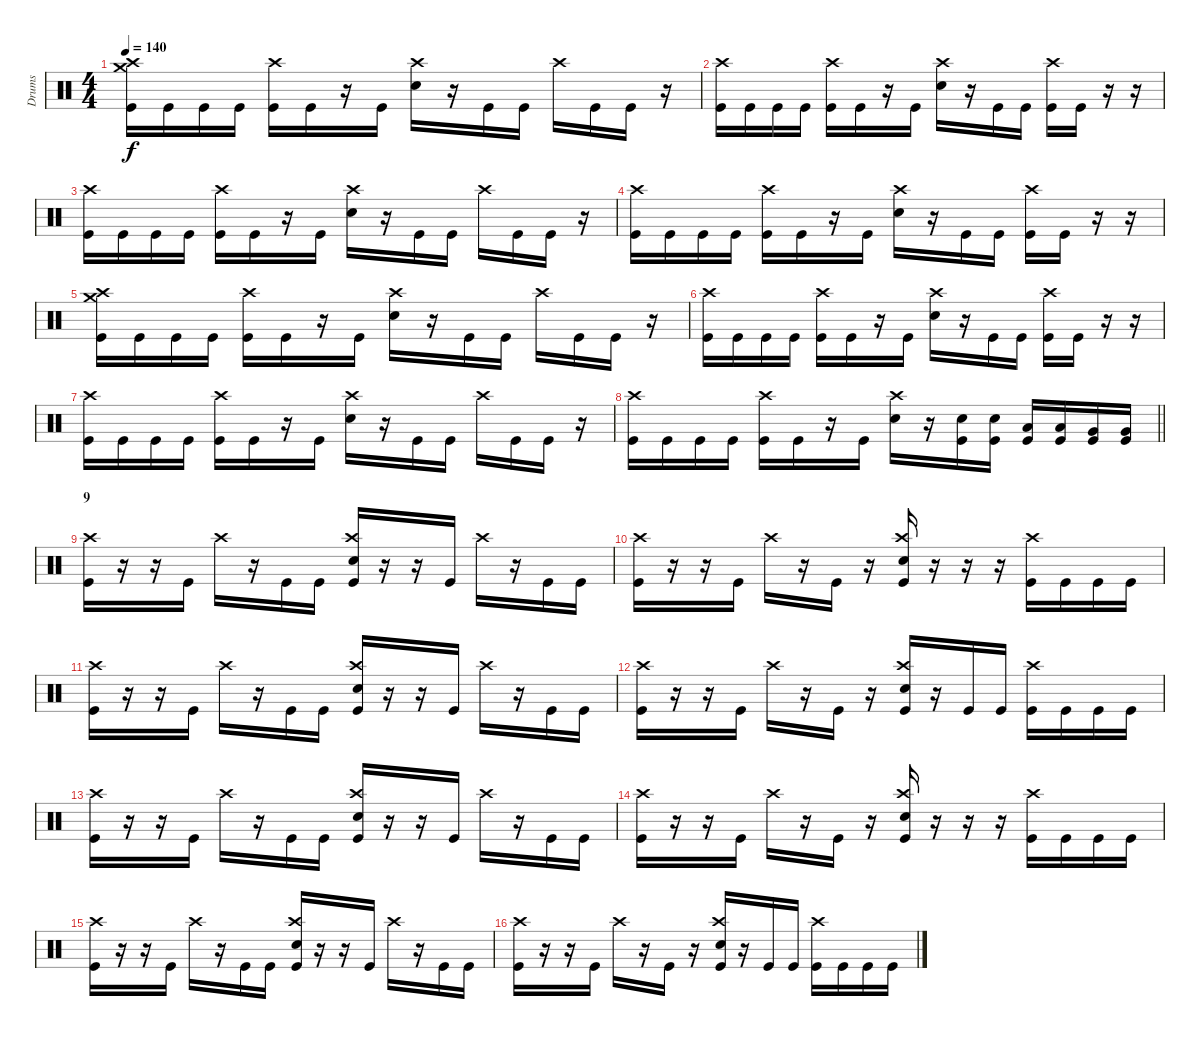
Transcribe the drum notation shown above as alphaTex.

\track ("Drums" "Drums") {instrument percussion}
\staff {score}
\articulation defaults
\ts (4 4)
\tempo 140
\clef neutral
\ks c
("Kick (hit)" "Crash high (hit)" "Crash medium (hit)").16{dy f} "Kick (hit)".16 "Kick (hit)".16 "Kick (hit)".16 ("Kick (hit)" "Crash high (hit)").16 "Kick (hit)".16 r.16 "Kick (hit)".16 ("Snare (hit) 2" "Crash high (hit)").16 r.16 "Kick (hit)".16 "Kick (hit)".16 "Crash high (hit)".16 "Kick (hit)".16 "Kick (hit)".16 r.16 |
("Kick (hit)" "Crash high (hit)").16 "Kick (hit)".16 "Kick (hit)".16 "Kick (hit)".16 ("Kick (hit)" "Crash high (hit)").16 "Kick (hit)".16 r.16 "Kick (hit)".16 ("Snare (hit) 2" "Crash high (hit)").16 r.16 "Kick (hit)".16 "Kick (hit)".16 ("Kick (hit)" "Crash high (hit)").16 "Kick (hit)".16 r.16 r.16 |
("Kick (hit)" "Crash high (hit)").16 "Kick (hit)".16 "Kick (hit)".16 "Kick (hit)".16 ("Kick (hit)" "Crash high (hit)").16 "Kick (hit)".16 r.16 "Kick (hit)".16 ("Snare (hit) 2" "Crash high (hit)").16 r.16 "Kick (hit)".16 "Kick (hit)".16 "Crash high (hit)".16 "Kick (hit)".16 "Kick (hit)".16 r.16 |
("Kick (hit)" "Crash high (hit)").16 "Kick (hit)".16 "Kick (hit)".16 "Kick (hit)".16 ("Kick (hit)" "Crash high (hit)").16 "Kick (hit)".16 r.16 "Kick (hit)".16 ("Snare (hit) 2" "Crash high (hit)").16 r.16 "Kick (hit)".16 "Kick (hit)".16 ("Kick (hit)" "Crash high (hit)").16 "Kick (hit)".16 r.16 r.16 |
("Kick (hit)" "Crash high (hit)" "Crash medium (hit)").16 "Kick (hit)".16 "Kick (hit)".16 "Kick (hit)".16 ("Kick (hit)" "Crash high (hit)").16 "Kick (hit)".16 r.16 "Kick (hit)".16 ("Snare (hit) 2" "Crash high (hit)").16 r.16 "Kick (hit)".16 "Kick (hit)".16 "Crash high (hit)".16 "Kick (hit)".16 "Kick (hit)".16 r.16 |
("Kick (hit)" "Crash high (hit)").16 "Kick (hit)".16 "Kick (hit)".16 "Kick (hit)".16 ("Kick (hit)" "Crash high (hit)").16 "Kick (hit)".16 r.16 "Kick (hit)".16 ("Snare (hit) 2" "Crash high (hit)").16 r.16 "Kick (hit)".16 "Kick (hit)".16 ("Kick (hit)" "Crash high (hit)").16 "Kick (hit)".16 r.16 r.16 |
("Kick (hit)" "Crash high (hit)").16 "Kick (hit)".16 "Kick (hit)".16 "Kick (hit)".16 ("Kick (hit)" "Crash high (hit)").16 "Kick (hit)".16 r.16 "Kick (hit)".16 ("Snare (hit) 2" "Crash high (hit)").16 r.16 "Kick (hit)".16 "Kick (hit)".16 "Crash high (hit)".16 "Kick (hit)".16 "Kick (hit)".16 r.16 |
\barLineRight lightlight
("Kick (hit)" "Crash high (hit)").16 "Kick (hit)".16 "Kick (hit)".16 "Kick (hit)".16 ("Kick (hit)" "Crash high (hit)").16 "Kick (hit)".16 r.16 "Kick (hit)".16 ("Snare (hit) 2" "Crash high (hit)").16 r.16 ("Kick (hit)" "Snare (hit) 2").16 ("Kick (hit)" "Snare (hit) 2").16 ("Kick (hit)" "Low Tom (hit)").16 ("Kick (hit)" "Low Tom (hit)").16 ("Kick (hit)" "Very Low Tom (hit)").16 ("Kick (hit)" "Very Low Tom (hit)").16 |
\section ("" "9")
("Kick (hit)" "Crash high (hit)").16 r.16 r.16 "Kick (hit)".16 "Crash high (hit)".16 r.16 "Kick (hit)".16 "Kick (hit)".16 ("Kick (hit)" "Snare (hit) 2" "Crash high (hit)").16 r.16 r.16 "Kick (hit)".16 "Crash high (hit)".16 r.16 "Kick (hit)".16 "Kick (hit)".16 |
("Kick (hit)" "Crash high (hit)").16 r.16 r.16 "Kick (hit)".16 "Crash high (hit)".16 r.16 "Kick (hit)".16 r.16 ("Kick (hit)" "Snare (hit) 2" "Crash high (hit)").16 r.16 r.16 r.16 ("Kick (hit)" "Crash high (hit)").16 "Kick (hit)".16 "Kick (hit)".16 "Kick (hit)".16 |
("Kick (hit)" "Crash high (hit)").16 r.16 r.16 "Kick (hit)".16 "Crash high (hit)".16 r.16 "Kick (hit)".16 "Kick (hit)".16 ("Kick (hit)" "Snare (hit) 2" "Crash high (hit)").16 r.16 r.16 "Kick (hit)".16 "Crash high (hit)".16 r.16 "Kick (hit)".16 "Kick (hit)".16 |
("Kick (hit)" "Crash high (hit)").16 r.16 r.16 "Kick (hit)".16 "Crash high (hit)".16 r.16 "Kick (hit)".16 r.16 ("Kick (hit)" "Snare (hit) 2" "Crash high (hit)").16 r.16 "Kick (hit)".16 "Kick (hit)".16 ("Kick (hit)" "Crash high (hit)").16 "Kick (hit)".16 "Kick (hit)".16 "Kick (hit)".16 |
("Kick (hit)" "Crash high (hit)").16 r.16 r.16 "Kick (hit)".16 "Crash high (hit)".16 r.16 "Kick (hit)".16 "Kick (hit)".16 ("Kick (hit)" "Snare (hit) 2" "Crash high (hit)").16 r.16 r.16 "Kick (hit)".16 "Crash high (hit)".16 r.16 "Kick (hit)".16 "Kick (hit)".16 |
("Kick (hit)" "Crash high (hit)").16 r.16 r.16 "Kick (hit)".16 "Crash high (hit)".16 r.16 "Kick (hit)".16 r.16 ("Kick (hit)" "Snare (hit) 2" "Crash high (hit)").16 r.16 r.16 r.16 ("Kick (hit)" "Crash high (hit)").16 "Kick (hit)".16 "Kick (hit)".16 "Kick (hit)".16 |
("Kick (hit)" "Crash high (hit)").16 r.16 r.16 "Kick (hit)".16 "Crash high (hit)".16 r.16 "Kick (hit)".16 "Kick (hit)".16 ("Kick (hit)" "Snare (hit) 2" "Crash high (hit)").16 r.16 r.16 "Kick (hit)".16 "Crash high (hit)".16 r.16 "Kick (hit)".16 "Kick (hit)".16 |
("Kick (hit)" "Crash high (hit)").16 r.16 r.16 "Kick (hit)".16 "Crash high (hit)".16 r.16 "Kick (hit)".16 r.16 ("Kick (hit)" "Snare (hit) 2" "Crash high (hit)").16 r.16 "Kick (hit)".16 "Kick (hit)".16 ("Kick (hit)" "Crash high (hit)").16 "Kick (hit)".16 "Kick (hit)".16 "Kick (hit)".16
